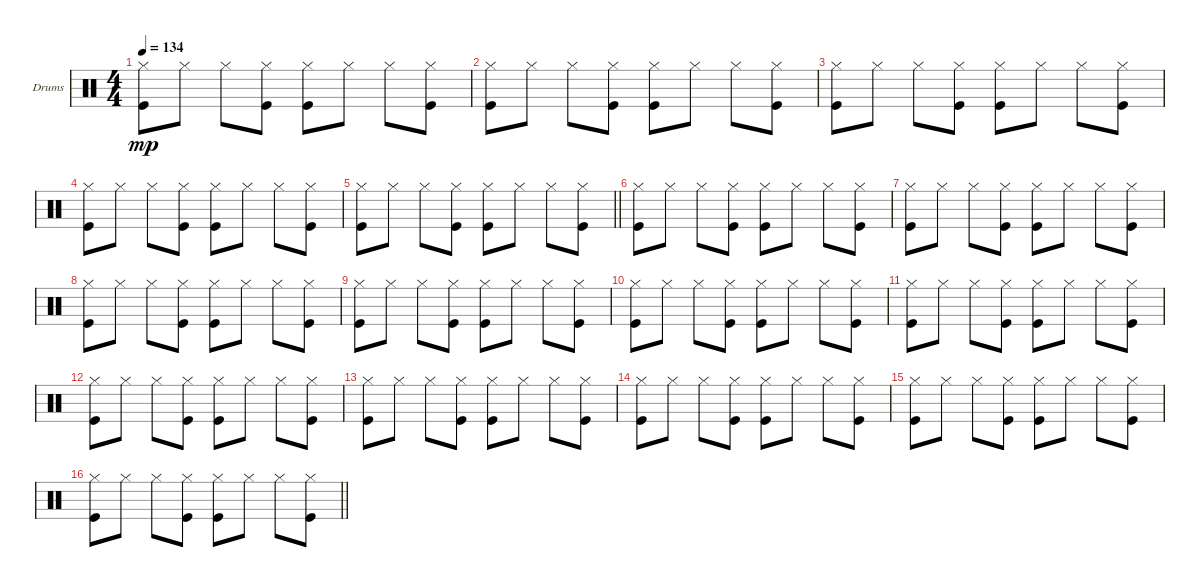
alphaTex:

\bracketExtendMode groupsimilarinstruments
\firstSystemTrackNameOrientation horizontal
\otherSystemsTrackNameOrientation horizontal
\track ("Drumkit" "Drums") {instrument percussion}
\staff {score}
\articulation defaults
\ts (4 4)
\scale
0.206316
\tempo 134
\accidentals auto
\clef neutral
\ottava regular
\simile none
\ks c
("Kick (hit)" "Hi-Hat (closed)").8{dy mp} "Hi-Hat (closed)".8 "Hi-Hat (closed)".8 ("Kick (hit)" "Hi-Hat (closed)").8 ("Kick (hit)" "Hi-Hat (closed)").8 "Hi-Hat (closed)".8 "Hi-Hat (closed)".8 ("Hi-Hat (closed)" "Kick (hit)").8 |
\scale
0.185263 ("Kick (hit)" "Hi-Hat (closed)").8 "Hi-Hat (closed)".8 "Hi-Hat (closed)".8 ("Kick (hit)" "Hi-Hat (closed)").8 ("Kick (hit)" "Hi-Hat (closed)").8 "Hi-Hat (closed)".8 "Hi-Hat (closed)".8 ("Hi-Hat (closed)" "Kick (hit)").8 |
\scale
0.304211 ("Kick (hit)" "Hi-Hat (closed)").8 "Hi-Hat (closed)".8 "Hi-Hat (closed)".8 ("Kick (hit)" "Hi-Hat (closed)").8 ("Kick (hit)" "Hi-Hat (closed)").8 "Hi-Hat (closed)".8 "Hi-Hat (closed)".8 ("Hi-Hat (closed)" "Kick (hit)").8 |
\scale
0.304211 ("Kick (hit)" "Hi-Hat (closed)").8 "Hi-Hat (closed)".8 "Hi-Hat (closed)".8 ("Kick (hit)" "Hi-Hat (closed)").8 ("Kick (hit)" "Hi-Hat (closed)").8 "Hi-Hat (closed)".8 "Hi-Hat (closed)".8 ("Hi-Hat (closed)" "Kick (hit)").8 |
\scale
0.244613
\barLineRight lightlight
("Kick (hit)" "Hi-Hat (closed)").8 "Hi-Hat (closed)".8 "Hi-Hat (closed)".8 ("Kick (hit)" "Hi-Hat (closed)").8 ("Kick (hit)" "Hi-Hat (closed)").8 "Hi-Hat (closed)".8 "Hi-Hat (closed)".8 ("Hi-Hat (closed)" "Kick (hit)").8 |
\scale
0.244613 ("Kick (hit)" "Hi-Hat (closed)").8 "Hi-Hat (closed)".8 "Hi-Hat (closed)".8 ("Kick (hit)" "Hi-Hat (closed)").8 ("Kick (hit)" "Hi-Hat (closed)").8 "Hi-Hat (closed)".8 "Hi-Hat (closed)".8 ("Hi-Hat (closed)" "Kick (hit)").8 |
\scale
0.26616 ("Kick (hit)" "Hi-Hat (closed)").8 "Hi-Hat (closed)".8 "Hi-Hat (closed)".8 ("Kick (hit)" "Hi-Hat (closed)").8 ("Kick (hit)" "Hi-Hat (closed)").8 "Hi-Hat (closed)".8 "Hi-Hat (closed)".8 ("Hi-Hat (closed)" "Kick (hit)").8 |
\scale
0.244613 ("Kick (hit)" "Hi-Hat (closed)").8 "Hi-Hat (closed)".8 "Hi-Hat (closed)".8 ("Kick (hit)" "Hi-Hat (closed)").8 ("Kick (hit)" "Hi-Hat (closed)").8 "Hi-Hat (closed)".8 "Hi-Hat (closed)".8 ("Hi-Hat (closed)" "Kick (hit)").8 |
\scale
0.220497 ("Kick (hit)" "Hi-Hat (closed)").8 "Hi-Hat (closed)".8 "Hi-Hat (closed)".8 ("Kick (hit)" "Hi-Hat (closed)").8 ("Kick (hit)" "Hi-Hat (closed)").8 "Hi-Hat (closed)".8 "Hi-Hat (closed)".8 ("Hi-Hat (closed)" "Kick (hit)").8 |
\scale
0.279503 ("Kick (hit)" "Hi-Hat (closed)").8 "Hi-Hat (closed)".8 "Hi-Hat (closed)".8 ("Kick (hit)" "Hi-Hat (closed)").8 ("Kick (hit)" "Hi-Hat (closed)").8 "Hi-Hat (closed)".8 "Hi-Hat (closed)".8 ("Hi-Hat (closed)" "Kick (hit)").8 |
\scale
0.220497 ("Kick (hit)" "Hi-Hat (closed)").8 "Hi-Hat (closed)".8 "Hi-Hat (closed)".8 ("Kick (hit)" "Hi-Hat (closed)").8 ("Kick (hit)" "Hi-Hat (closed)").8 "Hi-Hat (closed)".8 "Hi-Hat (closed)".8 ("Hi-Hat (closed)" "Kick (hit)").8 |
\scale
0.279503 ("Kick (hit)" "Hi-Hat (closed)").8 "Hi-Hat (closed)".8 "Hi-Hat (closed)".8 ("Kick (hit)" "Hi-Hat (closed)").8 ("Kick (hit)" "Hi-Hat (closed)").8 "Hi-Hat (closed)".8 "Hi-Hat (closed)".8 ("Hi-Hat (closed)" "Kick (hit)").8 |
\scale
0.208211 ("Kick (hit)" "Hi-Hat (closed)").8 "Hi-Hat (closed)".8 "Hi-Hat (closed)".8 ("Kick (hit)" "Hi-Hat (closed)").8 ("Kick (hit)" "Hi-Hat (closed)").8 "Hi-Hat (closed)".8 "Hi-Hat (closed)".8 ("Hi-Hat (closed)" "Kick (hit)").8 |
\scale
0.26393 ("Kick (hit)" "Hi-Hat (closed)").8 "Hi-Hat (closed)".8 "Hi-Hat (closed)".8 ("Kick (hit)" "Hi-Hat (closed)").8 ("Kick (hit)" "Hi-Hat (closed)").8 "Hi-Hat (closed)".8 "Hi-Hat (closed)".8 ("Hi-Hat (closed)" "Kick (hit)").8 |
\scale
0.26393 ("Kick (hit)" "Hi-Hat (closed)").8 "Hi-Hat (closed)".8 "Hi-Hat (closed)".8 ("Kick (hit)" "Hi-Hat (closed)").8 ("Kick (hit)" "Hi-Hat (closed)").8 "Hi-Hat (closed)".8 "Hi-Hat (closed)".8 ("Hi-Hat (closed)" "Kick (hit)").8 |
\scale
0.26393
\barLineRight lightlight
("Kick (hit)" "Hi-Hat (closed)").8 "Hi-Hat (closed)".8 "Hi-Hat (closed)".8 ("Kick (hit)" "Hi-Hat (closed)").8 ("Kick (hit)" "Hi-Hat (closed)").8 "Hi-Hat (closed)".8 "Hi-Hat (closed)".8 ("Hi-Hat (closed)" "Kick (hit)").8
